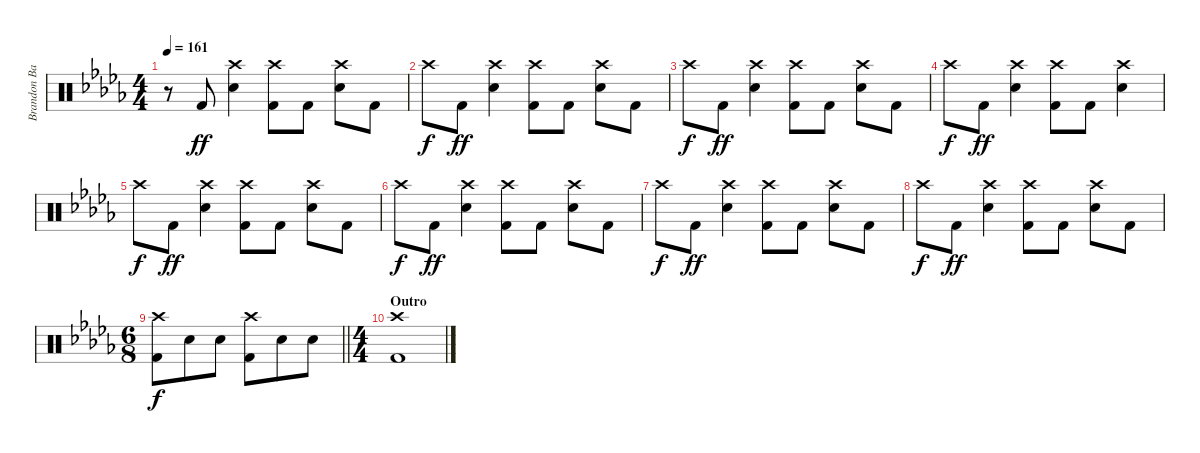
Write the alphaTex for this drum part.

\track ("Brandon Barnes - Drums" "Brandon Ba") {instrument percussion}
\staff {score}
\articulation defaults
\ts (4 4)
\tempo 161
\clef neutral
\ks db
r.8{dy mf} "Kick (hit) 2".8{dy ff} ("Snare (hit) 2" "Crash high (hit)").4 ("Kick (hit) 2" "Crash high (hit)").8 "Kick (hit) 2".8 ("Snare (hit) 2" "Crash high (hit)").8 "Kick (hit) 2".8 |
"Crash high (hit)".8{dy f} "Kick (hit) 2".8{dy ff} ("Snare (hit) 2" "Crash high (hit)").4 ("Kick (hit) 2" "Crash high (hit)").8 "Kick (hit) 2".8 ("Snare (hit) 2" "Crash high (hit)").8 "Kick (hit) 2".8 |
"Crash high (hit)".8{dy f} "Kick (hit) 2".8{dy ff} ("Snare (hit) 2" "Crash high (hit)").4 ("Kick (hit) 2" "Crash high (hit)").8 "Kick (hit) 2".8 ("Snare (hit) 2" "Crash high (hit)").8 "Kick (hit) 2".8 |
"Crash high (hit)".8{dy f} "Kick (hit) 2".8{dy ff} ("Snare (hit) 2" "Crash high (hit)").4 ("Kick (hit) 2" "Crash high (hit)").8 "Kick (hit) 2".8 ("Snare (hit) 2" "Crash high (hit)").4 |
"Crash high (hit)".8{dy f} "Kick (hit) 2".8{dy ff} ("Snare (hit) 2" "Crash high (hit)").4 ("Kick (hit) 2" "Crash high (hit)").8 "Kick (hit) 2".8 ("Snare (hit) 2" "Crash high (hit)").8 "Kick (hit) 2".8 |
"Crash high (hit)".8{dy f} "Kick (hit) 2".8{dy ff} ("Snare (hit) 2" "Crash high (hit)").4 ("Kick (hit) 2" "Crash high (hit)").8 "Kick (hit) 2".8 ("Snare (hit) 2" "Crash high (hit)").8 "Kick (hit) 2".8 |
"Crash high (hit)".8{dy f} "Kick (hit) 2".8{dy ff} ("Snare (hit) 2" "Crash high (hit)").4 ("Kick (hit) 2" "Crash high (hit)").8 "Kick (hit) 2".8 ("Snare (hit) 2" "Crash high (hit)").8 "Kick (hit) 2".8 |
"Crash high (hit)".8{dy f} "Kick (hit) 2".8{dy ff} ("Snare (hit) 2" "Crash high (hit)").4 ("Kick (hit) 2" "Crash high (hit)").8 "Kick (hit) 2".8 ("Snare (hit) 2" "Crash high (hit)").8 "Kick (hit) 2".8 |
\ts (6 8)
\barLineRight lightlight
("Kick (hit) 2" "Crash high (hit)").8{dy f} "Snare (hit) 2".8 "Snare (hit) 2".8 ("Kick (hit) 2" "Crash high (hit)").8 "Snare (hit) 2".8 "Snare (hit) 2".8 |
\ts (4 4)
\section ("" "Outro")
("Kick (hit) 2" "Crash high (hit)").1
